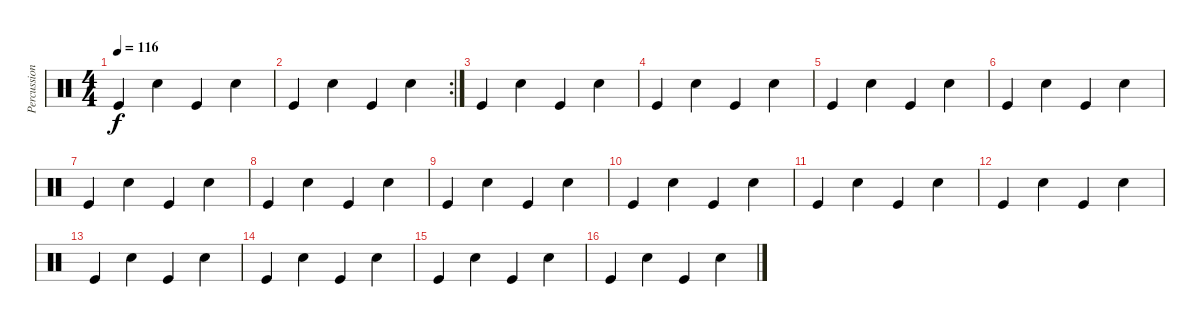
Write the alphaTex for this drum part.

\track ("Percussions" "Percussion") {instrument percussion}
\staff {score}
\articulation defaults
\ts (4 4)
\tempo 116
\clef neutral
\ks c "Kick (hit)".4{dy f} "Snare (hit) 2".4 "Kick (hit)".4 "Snare (hit) 2".4
|
\rc 2 "Kick (hit)".4 "Snare (hit) 2".4 "Kick (hit)".4 "Snare (hit) 2".4
|
"Kick (hit)".4 "Snare (hit) 2".4 "Kick (hit)".4 "Snare (hit) 2".4 |
"Kick (hit)".4 "Snare (hit) 2".4 "Kick (hit)".4 "Snare (hit) 2".4 |
"Kick (hit)".4 "Snare (hit) 2".4 "Kick (hit)".4 "Snare (hit) 2".4 |
"Kick (hit)".4 "Snare (hit) 2".4 "Kick (hit)".4 "Snare (hit) 2".4 |
"Kick (hit)".4 "Snare (hit) 2".4 "Kick (hit)".4 "Snare (hit) 2".4 |
"Kick (hit)".4 "Snare (hit) 2".4 "Kick (hit)".4 "Snare (hit) 2".4 |
"Kick (hit)".4 "Snare (hit) 2".4 "Kick (hit)".4 "Snare (hit) 2".4 |
"Kick (hit)".4 "Snare (hit) 2".4 "Kick (hit)".4 "Snare (hit) 2".4 |
"Kick (hit)".4 "Snare (hit) 2".4 "Kick (hit)".4 "Snare (hit) 2".4 |
"Kick (hit)".4 "Snare (hit) 2".4 "Kick (hit)".4 "Snare (hit) 2".4 |
"Kick (hit)".4 "Snare (hit) 2".4 "Kick (hit)".4 "Snare (hit) 2".4 |
"Kick (hit)".4 "Snare (hit) 2".4 "Kick (hit)".4 "Snare (hit) 2".4 |
"Kick (hit)".4 "Snare (hit) 2".4 "Kick (hit)".4 "Snare (hit) 2".4 |
"Kick (hit)".4 "Snare (hit) 2".4 "Kick (hit)".4 "Snare (hit) 2".4
